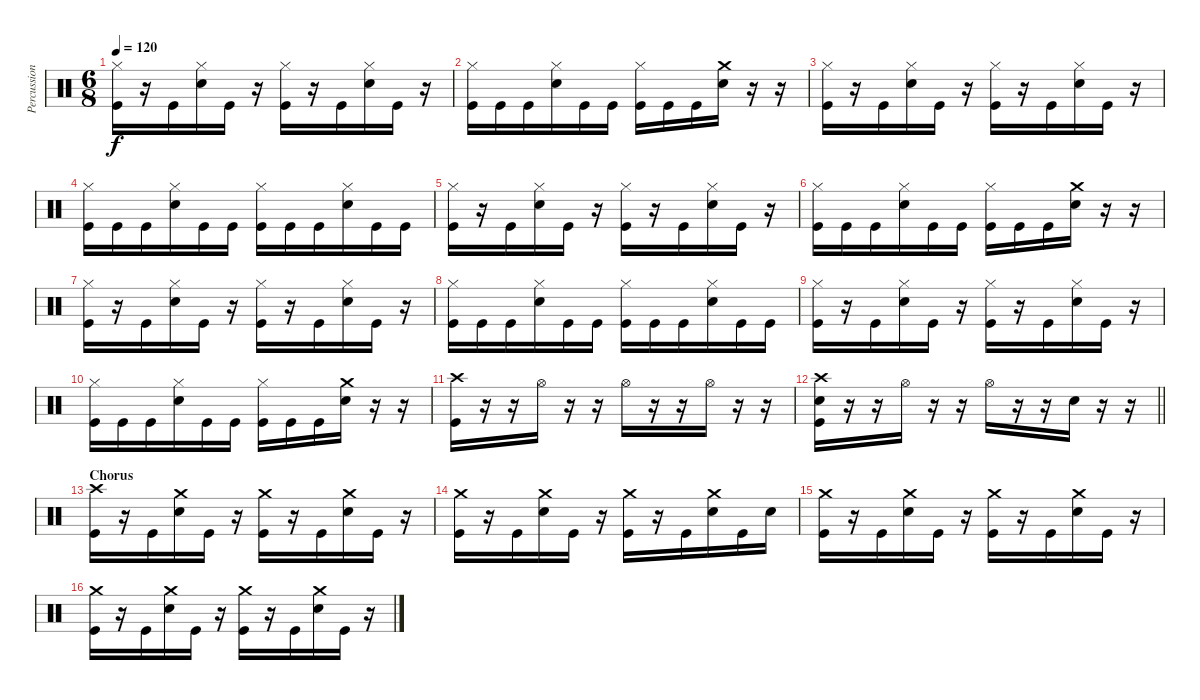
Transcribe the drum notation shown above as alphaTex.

\track ("Percussion" "Percussion") {instrument percussion}
\staff {score}
\articulation defaults
\ts (6 8)
\tempo 120
\clef neutral
\ks c
("Hi-Hat (closed)" "Kick (hit)").16{dy f} r.16 "Kick (hit)".16 ("Hi-Hat (closed)" "Snare (hit) 2").16 "Kick (hit)".16 r.16 ("Hi-Hat (closed)" "Kick (hit)").16 r.16 "Kick (hit)".16 ("Hi-Hat (closed)" "Snare (hit) 2").16 "Kick (hit)".16 r.16 |
("Hi-Hat (closed)" "Kick (hit)").16 "Kick (hit)".16 "Kick (hit)".16 ("Hi-Hat (closed)" "Snare (hit) 2").16 "Kick (hit)".16 "Kick (hit)".16 ("Hi-Hat (closed)" "Kick (hit)").16 "Kick (hit)".16 "Kick (hit)".16 ("Crash medium (hit)" "Snare (hit) 2").16 r.16 r.16 |
("Hi-Hat (closed)" "Kick (hit)").16 r.16 "Kick (hit)".16 ("Hi-Hat (closed)" "Snare (hit) 2").16 "Kick (hit)".16 r.16 ("Hi-Hat (closed)" "Kick (hit)").16 r.16 "Kick (hit)".16 ("Hi-Hat (closed)" "Snare (hit) 2").16 "Kick (hit)".16 r.16 |
("Hi-Hat (closed)" "Kick (hit)").16 "Kick (hit)".16 "Kick (hit)".16 ("Hi-Hat (closed)" "Snare (hit) 2").16 "Kick (hit)".16 "Kick (hit)".16 ("Hi-Hat (closed)" "Kick (hit)").16 "Kick (hit)".16 "Kick (hit)".16 ("Hi-Hat (closed)" "Snare (hit) 2").16 "Kick (hit)".16 "Kick (hit)".16 |
("Hi-Hat (closed)" "Kick (hit)").16 r.16 "Kick (hit)".16 ("Hi-Hat (closed)" "Snare (hit) 2").16 "Kick (hit)".16 r.16 ("Hi-Hat (closed)" "Kick (hit)").16 r.16 "Kick (hit)".16 ("Hi-Hat (closed)" "Snare (hit) 2").16 "Kick (hit)".16 r.16 |
("Hi-Hat (closed)" "Kick (hit)").16 "Kick (hit)".16 "Kick (hit)".16 ("Hi-Hat (closed)" "Snare (hit) 2").16 "Kick (hit)".16 "Kick (hit)".16 ("Hi-Hat (closed)" "Kick (hit)").16 "Kick (hit)".16 "Kick (hit)".16 ("Crash medium (hit)" "Snare (hit) 2").16 r.16 r.16 |
("Hi-Hat (closed)" "Kick (hit)").16 r.16 "Kick (hit)".16 ("Hi-Hat (closed)" "Snare (hit) 2").16 "Kick (hit)".16 r.16 ("Hi-Hat (closed)" "Kick (hit)").16 r.16 "Kick (hit)".16 ("Hi-Hat (closed)" "Snare (hit) 2").16 "Kick (hit)".16 r.16 |
("Hi-Hat (closed)" "Kick (hit)").16 "Kick (hit)".16 "Kick (hit)".16 ("Hi-Hat (closed)" "Snare (hit) 2").16 "Kick (hit)".16 "Kick (hit)".16 ("Hi-Hat (closed)" "Kick (hit)").16 "Kick (hit)".16 "Kick (hit)".16 ("Hi-Hat (closed)" "Snare (hit) 2").16 "Kick (hit)".16 "Kick (hit)".16 |
("Hi-Hat (closed)" "Kick (hit)").16 r.16 "Kick (hit)".16 ("Hi-Hat (closed)" "Snare (hit) 2").16 "Kick (hit)".16 r.16 ("Hi-Hat (closed)" "Kick (hit)").16 r.16 "Kick (hit)".16 ("Hi-Hat (closed)" "Snare (hit) 2").16 "Kick (hit)".16 r.16 |
("Hi-Hat (closed)" "Kick (hit)").16 "Kick (hit)".16 "Kick (hit)".16 ("Hi-Hat (closed)" "Snare (hit) 2").16 "Kick (hit)".16 "Kick (hit)".16 ("Hi-Hat (closed)" "Kick (hit)").16 "Kick (hit)".16 "Kick (hit)".16 ("Crash medium (hit)" "Snare (hit) 2").16 r.16 r.16 |
("Crash high (hit)" "Kick (hit)").16 r.16 r.16 "Hi-Hat (open)".16 r.16 r.16 "Hi-Hat (open)".16 r.16 r.16 "Hi-Hat (open)".16 r.16 r.16 |
\barLineRight lightlight
("Crash high (hit)" "Snare (hit) 2" "Kick (hit)").16 r.16 r.16 "Hi-Hat (open)".16 r.16 r.16 "Hi-Hat (open)".16 r.16 r.16 "Snare (hit) 2".16 r.16 r.16 |
\section ("" "Chorus")
("Crash high (hit)" "Kick (hit)").16 r.16 "Kick (hit)".16 ("Crash medium (hit)" "Snare (hit) 2").16 "Kick (hit)".16 r.16 ("Crash medium (hit)" "Kick (hit)").16 r.16 "Kick (hit)".16 ("Crash medium (hit)" "Snare (hit) 2").16 "Kick (hit)".16 r.16 |
("Crash medium (hit)" "Kick (hit)").16 r.16 "Kick (hit)".16 ("Crash medium (hit)" "Snare (hit) 2").16 "Kick (hit)".16 r.16 ("Crash medium (hit)" "Kick (hit)").16 r.16 "Kick (hit)".16 ("Crash medium (hit)" "Snare (hit) 2").16 "Kick (hit)".16 "Snare (hit) 2".16 |
("Crash medium (hit)" "Kick (hit)").16 r.16 "Kick (hit)".16 ("Crash medium (hit)" "Snare (hit) 2").16 "Kick (hit)".16 r.16 ("Crash medium (hit)" "Kick (hit)").16 r.16 "Kick (hit)".16 ("Crash medium (hit)" "Snare (hit) 2").16 "Kick (hit)".16 r.16 |
("Crash medium (hit)" "Kick (hit)").16 r.16 "Kick (hit)".16 ("Crash medium (hit)" "Snare (hit) 2").16 "Kick (hit)".16 r.16 ("Crash medium (hit)" "Kick (hit)").16 r.16 "Kick (hit)".16 ("Crash medium (hit)" "Snare (hit) 2").16 "Kick (hit)".16 r.16
